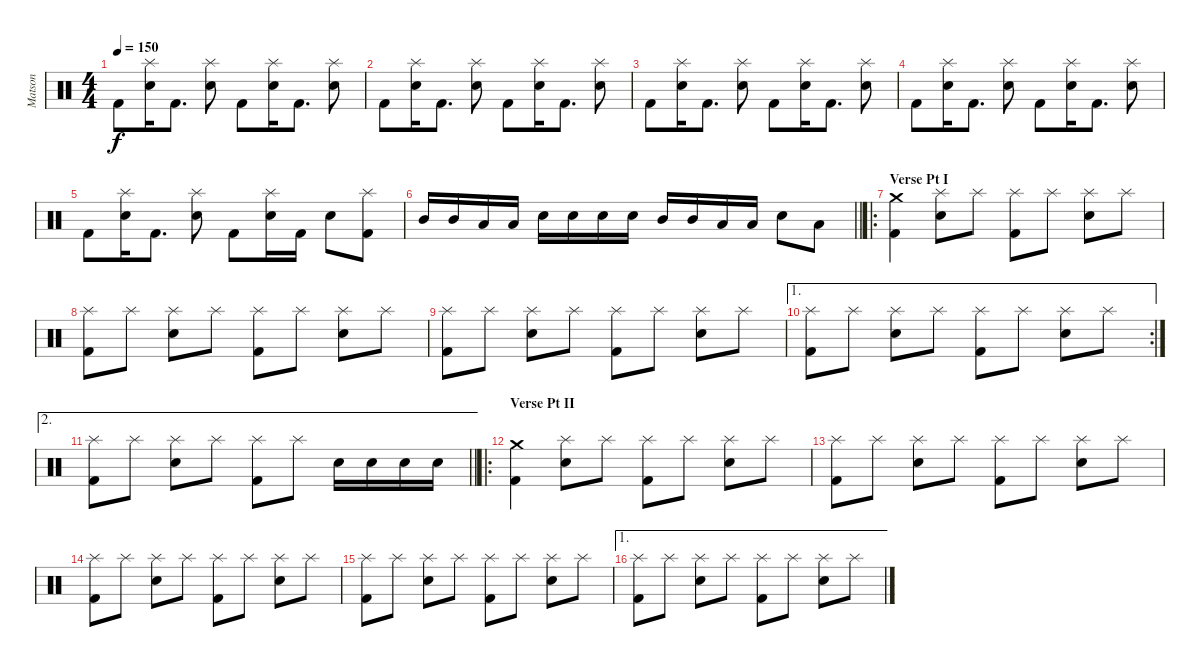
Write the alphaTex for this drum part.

\track ("Matson" "Matson") {instrument percussion}
\staff {score}
\articulation defaults
\ts (4 4)
\tempo 150
\clef neutral
\ks c "Kick (hit) 2".8{dy f}
("Snare (hit) 2" "Splash (hit)").16 "Kick (hit) 2".8{d} ("Snare (hit) 2" "Splash (hit)").8 "Kick (hit) 2".8 ("Snare (hit) 2" "Splash (hit)").16 "Kick (hit) 2".8{d} ("Snare (hit) 2" "Splash (hit)").8 |
"Kick (hit) 2".8 ("Snare (hit) 2" "Splash (hit)").16 "Kick (hit) 2".8{d} ("Snare (hit) 2" "Splash (hit)").8 "Kick (hit) 2".8 ("Snare (hit) 2" "Splash (hit)").16 "Kick (hit) 2".8{d} ("Snare (hit) 2" "Splash (hit)").8 |
"Kick (hit) 2".8 ("Snare (hit) 2" "Splash (hit)").16 "Kick (hit) 2".8{d} ("Snare (hit) 2" "Splash (hit)").8 "Kick (hit) 2".8 ("Snare (hit) 2" "Splash (hit)").16 "Kick (hit) 2".8{d} ("Snare (hit) 2" "Splash (hit)").8 |
"Kick (hit) 2".8 ("Snare (hit) 2" "Splash (hit)").16 "Kick (hit) 2".8{d} ("Snare (hit) 2" "Splash (hit)").8 "Kick (hit) 2".8 ("Snare (hit) 2" "Splash (hit)").16 "Kick (hit) 2".8{d} ("Snare (hit) 2" "Splash (hit)").8 |
"Kick (hit) 2".8 ("Snare (hit) 2" "Splash (hit)").16 "Kick (hit) 2".8{d} ("Snare (hit) 2" "Splash (hit)").8 "Kick (hit) 2".8 ("Snare (hit) 2" "Splash (hit)").16 "Kick (hit) 2".16 "Snare (hit) 2".8 ("Kick (hit) 2" "Splash (hit)").8 |
\barLineRight lightlight "Mid Tom (hit)".16 "Mid Tom (hit)".16 "Low Tom (hit)".16 "Low Tom (hit)".16 "Snare (hit) 2".16 "Snare (hit) 2".16 "Snare (hit) 2".16 "Snare (hit) 2".16 "Mid Tom (hit)".16 "Mid Tom (hit)".16 "Low Tom (hit)".16 "Low Tom (hit)".16 "Snare (hit) 2".8 "Low Floor Tom (hit)".8
|
\ro
\section ("" "Verse Pt I")
("Kick (hit) 2" "Crash medium (hit)").4 ("Snare (hit) 2" "Splash (hit)").8 "Splash (hit)".8 ("Kick (hit) 2" "Splash (hit)").8 "Splash (hit)".8 ("Snare (hit) 2" "Splash (hit)").8 "Splash (hit)".8 |
("Kick (hit) 2" "Splash (hit)").8 "Splash (hit)".8 ("Snare (hit) 2" "Splash (hit)").8 "Splash (hit)".8 ("Kick (hit) 2" "Splash (hit)").8 "Splash (hit)".8 ("Snare (hit) 2" "Splash (hit)").8 "Splash (hit)".8 |
("Kick (hit) 2" "Splash (hit)").8 "Splash (hit)".8 ("Snare (hit) 2" "Splash (hit)").8 "Splash (hit)".8 ("Kick (hit) 2" "Splash (hit)").8 "Splash (hit)".8 ("Snare (hit) 2" "Splash (hit)").8 "Splash (hit)".8 |
\ae 1
\rc 2
("Kick (hit) 2" "Splash (hit)").8 "Splash (hit)".8 ("Snare (hit) 2" "Splash (hit)").8 "Splash (hit)".8 ("Kick (hit) 2" "Splash (hit)").8 "Splash (hit)".8 ("Snare (hit) 2" "Splash (hit)").8 "Splash (hit)".8 |
\ae 2
\barLineRight lightlight
("Kick (hit) 2" "Splash (hit)").8 "Splash (hit)".8 ("Snare (hit) 2" "Splash (hit)").8 "Splash (hit)".8 ("Kick (hit) 2" "Splash (hit)").8 "Splash (hit)".8 "Snare (hit) 2".16 "Snare (hit) 2".16 "Snare (hit) 2".16 "Snare (hit) 2".16 |
\ro
\section ("" "Verse Pt II")
("Kick (hit) 2" "Crash medium (hit)").4 ("Snare (hit) 2" "Splash (hit)").8 "Splash (hit)".8 ("Kick (hit) 2" "Splash (hit)").8 "Splash (hit)".8 ("Snare (hit) 2" "Splash (hit)").8 "Splash (hit)".8 |
("Kick (hit) 2" "Splash (hit)").8 "Splash (hit)".8 ("Snare (hit) 2" "Splash (hit)").8 "Splash (hit)".8 ("Kick (hit) 2" "Splash (hit)").8 "Splash (hit)".8 ("Snare (hit) 2" "Splash (hit)").8 "Splash (hit)".8 |
("Kick (hit) 2" "Splash (hit)").8 "Splash (hit)".8 ("Snare (hit) 2" "Splash (hit)").8 "Splash (hit)".8 ("Kick (hit) 2" "Splash (hit)").8 "Splash (hit)".8 ("Snare (hit) 2" "Splash (hit)").8 "Splash (hit)".8 |
("Kick (hit) 2" "Splash (hit)").8 "Splash (hit)".8 ("Snare (hit) 2" "Splash (hit)").8 "Splash (hit)".8 ("Kick (hit) 2" "Splash (hit)").8 "Splash (hit)".8 ("Snare (hit) 2" "Splash (hit)").8 "Splash (hit)".8 |
\ae 1
("Kick (hit) 2" "Splash (hit)").8 "Splash (hit)".8 ("Snare (hit) 2" "Splash (hit)").8 "Splash (hit)".8 ("Kick (hit) 2" "Splash (hit)").8 "Splash (hit)".8 ("Snare (hit) 2" "Splash (hit)").8 "Splash (hit)".8
